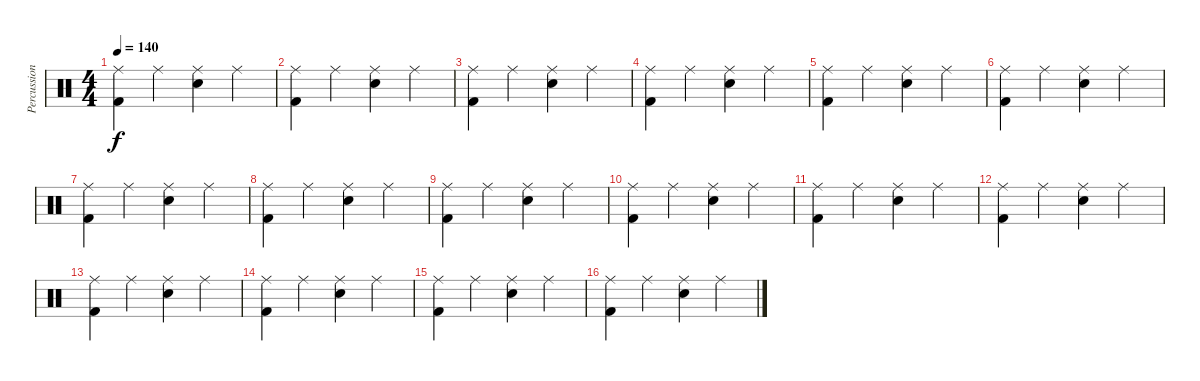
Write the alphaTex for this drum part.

\track ("Percussion" "Percussion") {instrument percussion}
\staff {score}
\articulation defaults
\ts (4 4)
\tempo 140
\clef neutral
\ks c
("Ride (middle)" "Kick (hit) 2").4{dy f} "Ride (middle)".4 ("Ride (middle)" "Snare (hit) 2").4 "Ride (middle)".4 |
("Ride (middle)" "Kick (hit) 2").4 "Ride (middle)".4 ("Ride (middle)" "Snare (hit) 2").4 "Ride (middle)".4 |
("Ride (middle)" "Kick (hit) 2").4 "Ride (middle)".4 ("Ride (middle)" "Snare (hit) 2").4 "Ride (middle)".4 |
("Ride (middle)" "Kick (hit) 2").4 "Ride (middle)".4 ("Ride (middle)" "Snare (hit) 2").4 "Ride (middle)".4 |
("Ride (middle)" "Kick (hit) 2").4 "Ride (middle)".4 ("Ride (middle)" "Snare (hit) 2").4 "Ride (middle)".4 |
("Ride (middle)" "Kick (hit) 2").4 "Ride (middle)".4 ("Ride (middle)" "Snare (hit) 2").4 "Ride (middle)".4 |
("Ride (middle)" "Kick (hit) 2").4 "Ride (middle)".4 ("Ride (middle)" "Snare (hit) 2").4 "Ride (middle)".4 |
("Ride (middle)" "Kick (hit) 2").4 "Ride (middle)".4 ("Ride (middle)" "Snare (hit) 2").4 "Ride (middle)".4 |
("Ride (middle)" "Kick (hit) 2").4 "Ride (middle)".4 ("Ride (middle)" "Snare (hit) 2").4 "Ride (middle)".4 |
("Ride (middle)" "Kick (hit) 2").4 "Ride (middle)".4 ("Ride (middle)" "Snare (hit) 2").4 "Ride (middle)".4 |
("Ride (middle)" "Kick (hit) 2").4 "Ride (middle)".4 ("Ride (middle)" "Snare (hit) 2").4 "Ride (middle)".4 |
("Ride (middle)" "Kick (hit) 2").4 "Ride (middle)".4 ("Ride (middle)" "Snare (hit) 2").4 "Ride (middle)".4 |
("Ride (middle)" "Kick (hit) 2").4 "Ride (middle)".4 ("Ride (middle)" "Snare (hit) 2").4 "Ride (middle)".4 |
("Ride (middle)" "Kick (hit) 2").4 "Ride (middle)".4 ("Ride (middle)" "Snare (hit) 2").4 "Ride (middle)".4 |
("Ride (middle)" "Kick (hit) 2").4 "Ride (middle)".4 ("Ride (middle)" "Snare (hit) 2").4 "Ride (middle)".4 |
("Ride (middle)" "Kick (hit) 2").4 "Ride (middle)".4 ("Ride (middle)" "Snare (hit) 2").4 "Ride (middle)".4
